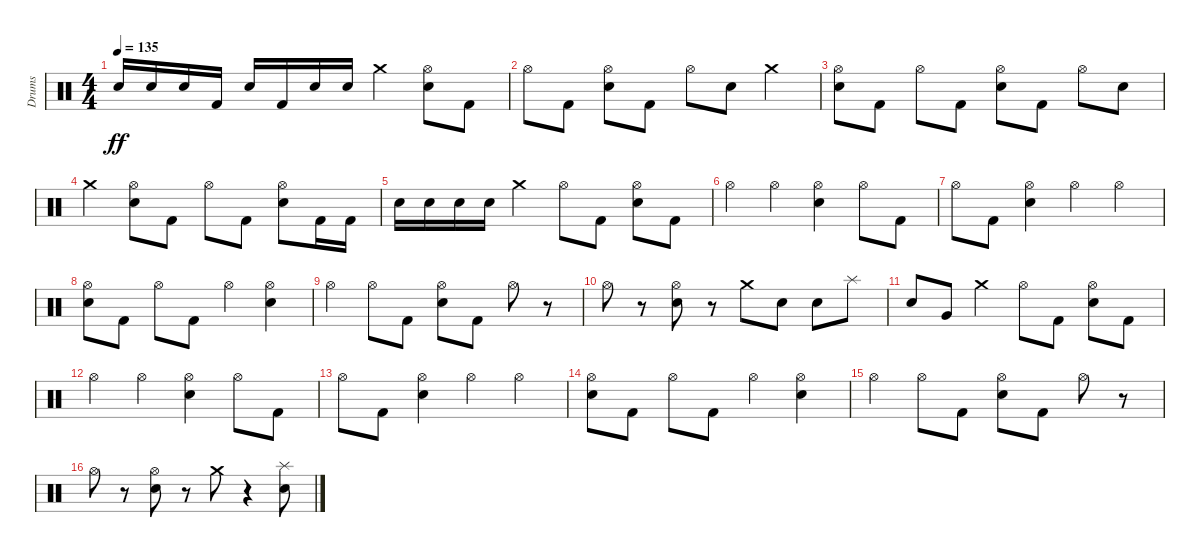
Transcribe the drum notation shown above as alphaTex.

\track ("Drums" "Drums") {instrument percussion}
\staff {score}
\articulation defaults
\ts (4 4)
\tempo 135
\clef neutral
\ks c "Electric Snare (hit)".16{dy ff} "Electric Snare (hit)".16 "Electric Snare (hit)".16 "Kick (hit) 2".16 "Electric Snare (hit)".16 "Kick (hit) 2".16 "Electric Snare (hit)".16 "Electric Snare (hit)".16 "Crash medium (hit)".4
("Electric Snare (hit)" "Hi-Hat (open)").8 "Kick (hit) 2".8 |
"Hi-Hat (open)".8 "Kick (hit) 2".8 ("Electric Snare (hit)" "Hi-Hat (open)").8 "Kick (hit) 2".8 "Hi-Hat (open)".8 "Electric Snare (hit)".8 "Crash medium (hit)".4 |
("Electric Snare (hit)" "Hi-Hat (open)").8 "Kick (hit) 2".8 "Hi-Hat (open)".8 "Kick (hit) 2".8 ("Electric Snare (hit)" "Hi-Hat (open)").8 "Kick (hit) 2".8 "Hi-Hat (open)".8 "Electric Snare (hit)".8 |
"Crash medium (hit)".4 ("Electric Snare (hit)" "Hi-Hat (open)").8 "Kick (hit) 2".8 "Hi-Hat (open)".8 "Kick (hit) 2".8 ("Electric Snare (hit)" "Hi-Hat (open)").8 "Kick (hit) 2".16 "Kick (hit) 2".16 |
"Electric Snare (hit)".16 "Electric Snare (hit)".16 "Electric Snare (hit)".16 "Electric Snare (hit)".16 "Crash medium (hit)".4 "Hi-Hat (open)".8 "Kick (hit) 2".8 ("Electric Snare (hit)" "Hi-Hat (open)").8 "Kick (hit) 2".8 |
"Hi-Hat (open)".4 "Hi-Hat (open)".4 ("Electric Snare (hit)" "Hi-Hat (open)").4 "Hi-Hat (open)".8 "Kick (hit) 2".8 |
"Hi-Hat (open)".8 "Kick (hit) 2".8 ("Electric Snare (hit)" "Hi-Hat (open)").4 "Hi-Hat (open)".4 "Hi-Hat (open)".4 |
("Electric Snare (hit)" "Hi-Hat (open)").8 "Kick (hit) 2".8 "Hi-Hat (open)".8 "Kick (hit) 2".8 "Hi-Hat (open)".4 ("Electric Snare (hit)" "Hi-Hat (open)").4 |
"Hi-Hat (open)".4 "Hi-Hat (open)".8 "Kick (hit) 2".8 ("Electric Snare (hit)" "Hi-Hat (open)").8 "Kick (hit) 2".8 "Hi-Hat (open)".8 r.8 |
"Hi-Hat (open)".8 r.8 ("Electric Snare (hit)" "Hi-Hat (open)").8 r.8 "Crash medium (hit)".8 "Electric Snare (hit)".8 "Electric Snare (hit)".8 "Splash (hit)".8 |
"Electric Snare (hit)".8 "Very Low Tom (hit)".8 "Crash medium (hit)".4 "Hi-Hat (open)".8 "Kick (hit) 2".8 ("Electric Snare (hit)" "Hi-Hat (open)").8 "Kick (hit) 2".8 |
"Hi-Hat (open)".4 "Hi-Hat (open)".4 ("Electric Snare (hit)" "Hi-Hat (open)").4 "Hi-Hat (open)".8 "Kick (hit) 2".8 |
"Hi-Hat (open)".8 "Kick (hit) 2".8 ("Electric Snare (hit)" "Hi-Hat (open)").4 "Hi-Hat (open)".4 "Hi-Hat (open)".4 |
("Electric Snare (hit)" "Hi-Hat (open)").8 "Kick (hit) 2".8 "Hi-Hat (open)".8 "Kick (hit) 2".8 "Hi-Hat (open)".4 ("Electric Snare (hit)" "Hi-Hat (open)").4 |
"Hi-Hat (open)".4 "Hi-Hat (open)".8 "Kick (hit) 2".8 ("Electric Snare (hit)" "Hi-Hat (open)").8 "Kick (hit) 2".8 "Hi-Hat (open)".8 r.8 |
"Hi-Hat (open)".8 r.8 ("Electric Snare (hit)" "Hi-Hat (open)").8 r.8 "Crash medium (hit)".8 r.4 ("Electric Snare (hit)" "Splash (hit)").8
